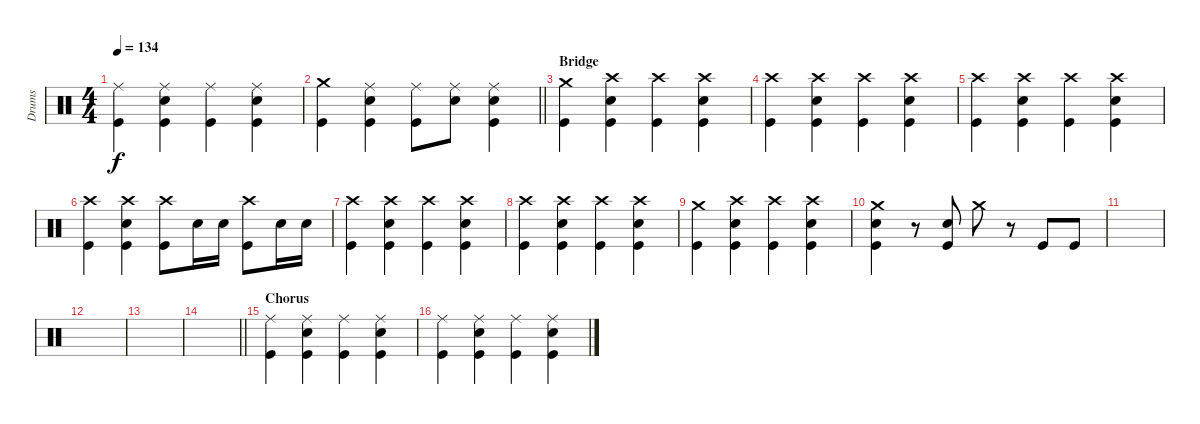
\track ("Drums" "Drums") {solo instrument percussion}
\staff {score}
\articulation defaults
\ts (4 4)
\tempo 134
\clef neutral
\ks c
("Ride (middle)" "Kick (hit)").4{dy f} ("Ride (middle)" "Kick (hit)" "Snare (hit) 2").4 ("Ride (middle)" "Kick (hit)").4 ("Ride (middle)" "Kick (hit)" "Snare (hit) 2").4 |
\barLineRight lightlight
("Crash medium (hit)" "Kick (hit)").4 ("Ride (middle)" "Kick (hit)" "Snare (hit) 2").4 ("Ride (middle)" "Kick (hit)").8 ("Ride (middle)" "Snare (hit) 2").8 ("Ride (middle)" "Kick (hit)" "Snare (hit) 2").4 |
\section ("" "Bridge")
("Crash medium (hit)" "Kick (hit)").4 ("Crash high (hit)" "Kick (hit)" "Snare (hit) 2").4 ("Crash high (hit)" "Kick (hit)").4 ("Crash high (hit)" "Kick (hit)" "Snare (hit) 2").4 |
("Crash high (hit)" "Kick (hit)").4 ("Crash high (hit)" "Kick (hit)" "Snare (hit) 2").4 ("Crash high (hit)" "Kick (hit)").4 ("Crash high (hit)" "Kick (hit)" "Snare (hit) 2").4 |
("Crash high (hit)" "Kick (hit)").4 ("Crash high (hit)" "Kick (hit)" "Snare (hit) 2").4 ("Crash high (hit)" "Kick (hit)").4 ("Crash high (hit)" "Kick (hit)" "Snare (hit) 2").4 |
("Crash high (hit)" "Kick (hit)").4 ("Crash high (hit)" "Kick (hit)" "Snare (hit) 2").4 ("Crash high (hit)" "Kick (hit)").8 "Snare (hit) 2".16 "Snare (hit) 2".16 ("Crash high (hit)" "Kick (hit)").8 "Snare (hit) 2".16 "Snare (hit) 2".16 |
("Crash high (hit)" "Kick (hit)").4 ("Crash high (hit)" "Kick (hit)" "Snare (hit) 2").4 ("Crash high (hit)" "Kick (hit)").4 ("Crash high (hit)" "Kick (hit)" "Snare (hit) 2").4 |
("Crash high (hit)" "Kick (hit)").4 ("Crash high (hit)" "Kick (hit)" "Snare (hit) 2").4 ("Crash high (hit)" "Kick (hit)").4 ("Crash high (hit)" "Kick (hit)" "Snare (hit) 2").4 |
("Crash medium (hit)" "Kick (hit)").4 ("Crash high (hit)" "Kick (hit)" "Snare (hit) 2").4 ("Crash high (hit)" "Kick (hit)").4 ("Crash high (hit)" "Kick (hit)" "Snare (hit) 2").4 |
("Crash medium (hit)" "Kick (hit)" "Snare (hit) 2").4 r.8 ("Kick (hit)" "Snare (hit) 2").8 "Crash medium (hit)".8 r.8 "Kick (hit)".8 "Kick (hit)".8 |
|
|
|
\barLineRight lightlight
|
\section ("" "Chorus")
("Ride (middle)" "Kick (hit)").4 ("Ride (middle)" "Kick (hit)" "Snare (hit) 2").4 ("Ride (middle)" "Kick (hit)").4 ("Ride (middle)" "Kick (hit)" "Snare (hit) 2").4 |
("Ride (middle)" "Kick (hit)").4 ("Ride (middle)" "Kick (hit)" "Snare (hit) 2").4 ("Ride (middle)" "Kick (hit)").4 ("Ride (middle)" "Kick (hit)" "Snare (hit) 2").4
